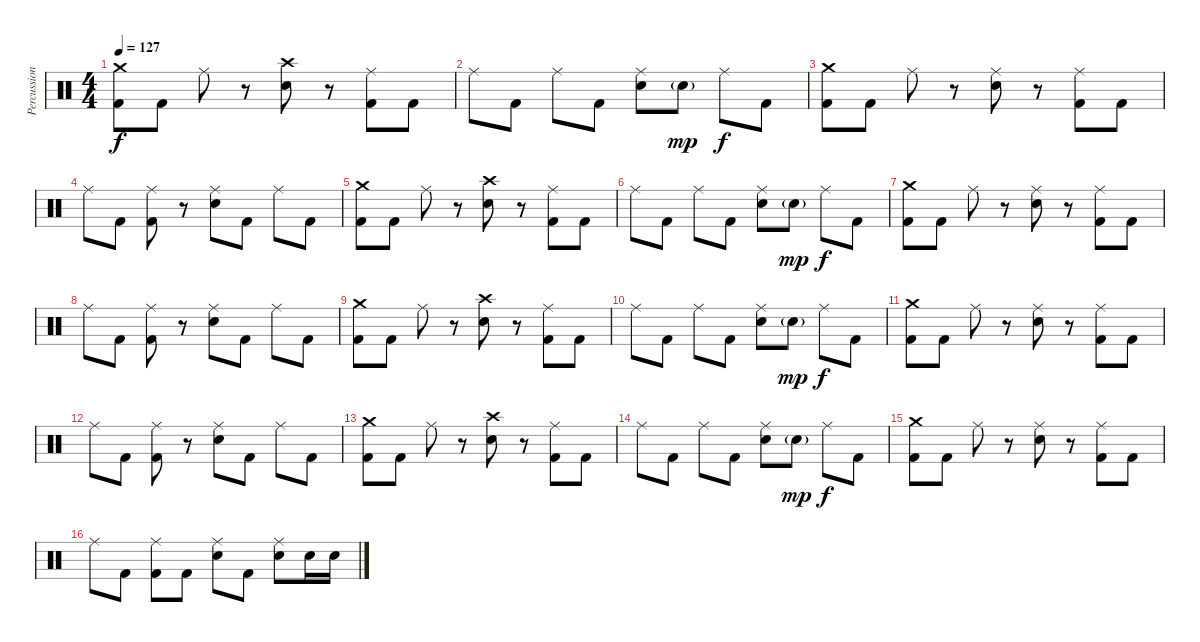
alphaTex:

\track ("Percussion" "Percussion") {instrument percussion}
\staff {score}
\articulation defaults
\ts (4 4)
\tempo 127
\clef neutral
\ks c
("Crash medium (hit)" "Kick (hit) 2").8{dy f} "Kick (hit) 2".8 "Ride (middle)".8 r.8 ("Crash high (hit)" "Snare (hit) 2").8 r.8 ("Ride (middle)" "Kick (hit) 2").8 "Kick (hit) 2".8 |
"Ride (middle)".8 "Kick (hit) 2".8 "Ride (middle)".8 "Kick (hit) 2".8 ("Ride (middle)" "Snare (hit) 2").8 "Snare (hit) 2"{g}.8{dy mp} "Ride (middle)".8{dy f} "Kick (hit) 2".8 |
("Crash medium (hit)" "Kick (hit) 2").8 "Kick (hit) 2".8 "Ride (middle)".8 r.8 ("Ride (middle)" "Snare (hit) 2").8 r.8 ("Ride (middle)" "Kick (hit) 2").8 "Kick (hit) 2".8 |
"Ride (middle)".8 "Kick (hit) 2".8 ("Ride (middle)" "Kick (hit) 2").8 r.8 ("Ride (middle)" "Snare (hit) 2").8 "Kick (hit) 2".8 "Ride (middle)".8 "Kick (hit) 2".8 |
("Crash medium (hit)" "Kick (hit) 2").8 "Kick (hit) 2".8 "Ride (middle)".8 r.8 ("Crash high (hit)" "Snare (hit) 2").8 r.8 ("Ride (middle)" "Kick (hit) 2").8 "Kick (hit) 2".8 |
"Ride (middle)".8 "Kick (hit) 2".8 "Ride (middle)".8 "Kick (hit) 2".8 ("Ride (middle)" "Snare (hit) 2").8 "Snare (hit) 2"{g}.8{dy mp} "Ride (middle)".8{dy f} "Kick (hit) 2".8 |
("Crash medium (hit)" "Kick (hit) 2").8 "Kick (hit) 2".8 "Ride (middle)".8 r.8 ("Ride (middle)" "Snare (hit) 2").8 r.8 ("Ride (middle)" "Kick (hit) 2").8 "Kick (hit) 2".8 |
"Ride (middle)".8 "Kick (hit) 2".8 ("Ride (middle)" "Kick (hit) 2").8 r.8 ("Ride (middle)" "Snare (hit) 2").8 "Kick (hit) 2".8 "Ride (middle)".8 "Kick (hit) 2".8 |
("Crash medium (hit)" "Kick (hit) 2").8 "Kick (hit) 2".8 "Ride (middle)".8 r.8 ("Crash high (hit)" "Snare (hit) 2").8 r.8 ("Ride (middle)" "Kick (hit) 2").8 "Kick (hit) 2".8 |
"Ride (middle)".8 "Kick (hit) 2".8 "Ride (middle)".8 "Kick (hit) 2".8 ("Ride (middle)" "Snare (hit) 2").8 "Snare (hit) 2"{g}.8{dy mp} "Ride (middle)".8{dy f} "Kick (hit) 2".8 |
("Crash medium (hit)" "Kick (hit) 2").8 "Kick (hit) 2".8 "Ride (middle)".8 r.8 ("Ride (middle)" "Snare (hit) 2").8 r.8 ("Ride (middle)" "Kick (hit) 2").8 "Kick (hit) 2".8 |
"Ride (middle)".8 "Kick (hit) 2".8 ("Ride (middle)" "Kick (hit) 2").8 r.8 ("Ride (middle)" "Snare (hit) 2").8 "Kick (hit) 2".8 "Ride (middle)".8 "Kick (hit) 2".8 |
("Crash medium (hit)" "Kick (hit) 2").8 "Kick (hit) 2".8 "Ride (middle)".8 r.8 ("Crash high (hit)" "Snare (hit) 2").8 r.8 ("Ride (middle)" "Kick (hit) 2").8 "Kick (hit) 2".8 |
"Ride (middle)".8 "Kick (hit) 2".8 "Ride (middle)".8 "Kick (hit) 2".8 ("Ride (middle)" "Snare (hit) 2").8 "Snare (hit) 2"{g}.8{dy mp} "Ride (middle)".8{dy f} "Kick (hit) 2".8 |
("Crash medium (hit)" "Kick (hit) 2").8 "Kick (hit) 2".8 "Ride (middle)".8 r.8 ("Ride (middle)" "Snare (hit) 2").8 r.8 ("Ride (middle)" "Kick (hit) 2").8 "Kick (hit) 2".8 |
"Ride (middle)".8 "Kick (hit) 2".8 ("Ride (middle)" "Kick (hit) 2").8 "Kick (hit) 2".8 ("Ride (middle)" "Snare (hit) 2").8 "Kick (hit) 2".8 ("Ride (middle)" "Snare (hit) 2").8 "Snare (hit) 2".16 "Snare (hit) 2".16
